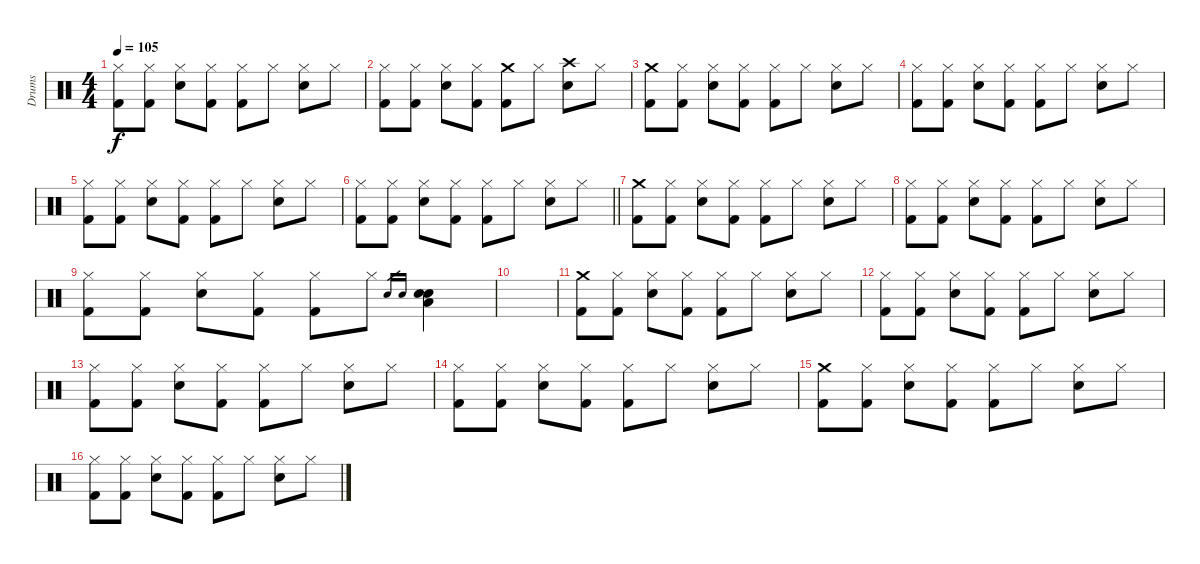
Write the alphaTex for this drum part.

\track ("Drums" "Drums") {instrument percussion}
\staff {score}
\articulation defaults
\ts (4 4)
\tempo 105
\clef neutral
\ks c
("Kick (hit) 2" "Hi-Hat (closed)").8{dy f} ("Kick (hit) 2" "Hi-Hat (closed)").8 ("Snare (hit) 2" "Hi-Hat (closed)").8 ("Kick (hit) 2" "Hi-Hat (closed)").8 ("Kick (hit) 2" "Hi-Hat (closed)").8 "Hi-Hat (closed)".8 ("Snare (hit) 2" "Hi-Hat (closed)").8 "Hi-Hat (closed)".8 |
("Kick (hit) 2" "Hi-Hat (closed)").8 ("Kick (hit) 2" "Hi-Hat (closed)").8 ("Snare (hit) 2" "Hi-Hat (closed)").8 ("Kick (hit) 2" "Hi-Hat (closed)").8 ("Kick (hit) 2" "Crash medium (hit)").8 "Hi-Hat (closed)".8 ("Snare (hit) 2" "Crash high (hit)").8 "Hi-Hat (closed)".8 |
("Kick (hit) 2" "Crash medium (hit)").8 ("Kick (hit) 2" "Hi-Hat (closed)").8 ("Snare (hit) 2" "Hi-Hat (closed)").8 ("Kick (hit) 2" "Hi-Hat (closed)").8 ("Kick (hit) 2" "Hi-Hat (closed)").8 "Hi-Hat (closed)".8 ("Snare (hit) 2" "Hi-Hat (closed)").8 "Hi-Hat (closed)".8 |
("Kick (hit) 2" "Hi-Hat (closed)").8 ("Kick (hit) 2" "Hi-Hat (closed)").8 ("Snare (hit) 2" "Hi-Hat (closed)").8 ("Kick (hit) 2" "Hi-Hat (closed)").8 ("Kick (hit) 2" "Hi-Hat (closed)").8 "Hi-Hat (closed)".8 ("Snare (hit) 2" "Hi-Hat (closed)").8 "Hi-Hat (closed)".8 |
("Kick (hit) 2" "Hi-Hat (closed)").8 ("Kick (hit) 2" "Hi-Hat (closed)").8 ("Snare (hit) 2" "Hi-Hat (closed)").8 ("Kick (hit) 2" "Hi-Hat (closed)").8 ("Kick (hit) 2" "Hi-Hat (closed)").8 "Hi-Hat (closed)".8 ("Snare (hit) 2" "Hi-Hat (closed)").8 "Hi-Hat (closed)".8 |
\barLineRight lightlight
("Kick (hit) 2" "Hi-Hat (closed)").8 ("Kick (hit) 2" "Hi-Hat (closed)").8 ("Snare (hit) 2" "Hi-Hat (closed)").8 ("Kick (hit) 2" "Hi-Hat (closed)").8 ("Kick (hit) 2" "Hi-Hat (closed)").8 "Hi-Hat (closed)".8 ("Snare (hit) 2" "Hi-Hat (closed)").8 "Hi-Hat (closed)".8 |
("Kick (hit) 2" "Crash medium (hit)").8 ("Kick (hit) 2" "Hi-Hat (closed)").8 ("Snare (hit) 2" "Hi-Hat (closed)").8 ("Kick (hit) 2" "Hi-Hat (closed)").8 ("Kick (hit) 2" "Hi-Hat (closed)").8 "Hi-Hat (closed)".8 ("Snare (hit) 2" "Hi-Hat (closed)").8 "Hi-Hat (closed)".8 |
("Kick (hit) 2" "Hi-Hat (closed)").8 ("Kick (hit) 2" "Hi-Hat (closed)").8 ("Snare (hit) 2" "Hi-Hat (closed)").8 ("Kick (hit) 2" "Hi-Hat (closed)").8 ("Kick (hit) 2" "Hi-Hat (closed)").8 "Hi-Hat (closed)".8 ("Snare (hit) 2" "Hi-Hat (closed)").8 "Hi-Hat (closed)".8 |
("Kick (hit) 2" "Hi-Hat (closed)").8 ("Kick (hit) 2" "Hi-Hat (closed)").8 ("Snare (hit) 2" "Hi-Hat (closed)").8 ("Kick (hit) 2" "Hi-Hat (closed)").8 ("Kick (hit) 2" "Hi-Hat (closed)").8 "Hi-Hat (closed)".8 "Snare (hit) 2".16{gr} "Snare (hit) 2".16{gr} ("Snare (hit) 2" "Snare (hit) 2" "Low Tom (hit)").4 |
|
("Kick (hit) 2" "Crash medium (hit)").8 ("Kick (hit) 2" "Hi-Hat (closed)").8 ("Snare (hit) 2" "Hi-Hat (closed)").8 ("Kick (hit) 2" "Hi-Hat (closed)").8 ("Kick (hit) 2" "Hi-Hat (closed)").8 "Hi-Hat (closed)".8 ("Snare (hit) 2" "Hi-Hat (closed)").8 "Hi-Hat (closed)".8 |
("Kick (hit) 2" "Hi-Hat (closed)").8 ("Kick (hit) 2" "Hi-Hat (closed)").8 ("Snare (hit) 2" "Hi-Hat (closed)").8 ("Kick (hit) 2" "Hi-Hat (closed)").8 ("Kick (hit) 2" "Hi-Hat (closed)").8 "Hi-Hat (closed)".8 ("Snare (hit) 2" "Hi-Hat (closed)").8 "Hi-Hat (closed)".8 |
("Kick (hit) 2" "Hi-Hat (closed)").8 ("Kick (hit) 2" "Hi-Hat (closed)").8 ("Snare (hit) 2" "Hi-Hat (closed)").8 ("Kick (hit) 2" "Hi-Hat (closed)").8 ("Kick (hit) 2" "Hi-Hat (closed)").8 "Hi-Hat (closed)".8 ("Snare (hit) 2" "Hi-Hat (closed)").8 "Hi-Hat (closed)".8 |
("Kick (hit) 2" "Hi-Hat (closed)").8 ("Kick (hit) 2" "Hi-Hat (closed)").8 ("Snare (hit) 2" "Hi-Hat (closed)").8 ("Kick (hit) 2" "Hi-Hat (closed)").8 ("Kick (hit) 2" "Hi-Hat (closed)").8 "Hi-Hat (closed)".8 ("Snare (hit) 2" "Hi-Hat (closed)").8 "Hi-Hat (closed)".8 |
("Kick (hit) 2" "Crash medium (hit)").8 ("Kick (hit) 2" "Hi-Hat (closed)").8 ("Snare (hit) 2" "Hi-Hat (closed)").8 ("Kick (hit) 2" "Hi-Hat (closed)").8 ("Kick (hit) 2" "Hi-Hat (closed)").8 "Hi-Hat (closed)".8 ("Snare (hit) 2" "Hi-Hat (closed)").8 "Hi-Hat (closed)".8 |
("Kick (hit) 2" "Hi-Hat (closed)").8 ("Kick (hit) 2" "Hi-Hat (closed)").8 ("Snare (hit) 2" "Hi-Hat (closed)").8 ("Kick (hit) 2" "Hi-Hat (closed)").8 ("Kick (hit) 2" "Hi-Hat (closed)").8 "Hi-Hat (closed)".8 ("Snare (hit) 2" "Hi-Hat (closed)").8 "Hi-Hat (closed)".8
